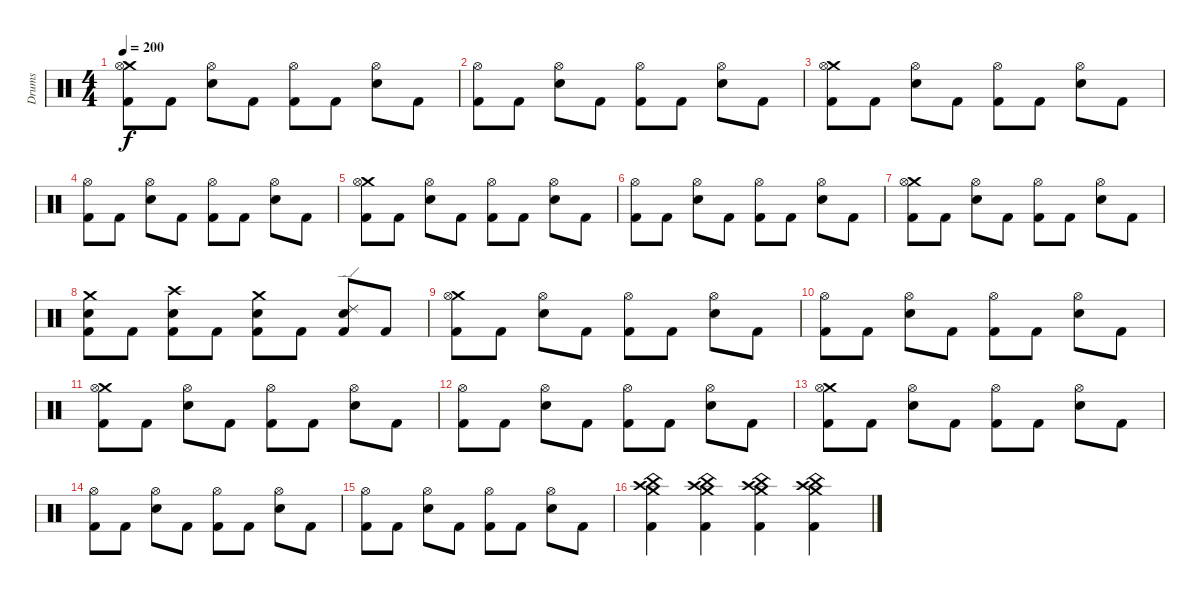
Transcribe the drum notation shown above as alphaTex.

\track ("Drums" "Drums") {instrument percussion}
\staff {score}
\articulation defaults
\ts (4 4)
\tempo 200
\clef neutral
\ks c
("Crash medium (hit)" "Hi-Hat (open)" "Kick (hit) 2").8{dy f} "Kick (hit) 2".8 ("Hi-Hat (open)" "Snare (hit) 2").8 "Kick (hit) 2".8 ("Hi-Hat (open)" "Kick (hit) 2").8 "Kick (hit) 2".8 ("Hi-Hat (open)" "Snare (hit) 2").8 "Kick (hit) 2".8 |
("Hi-Hat (open)" "Kick (hit) 2").8 "Kick (hit) 2".8 ("Hi-Hat (open)" "Snare (hit) 2").8 "Kick (hit) 2".8 ("Hi-Hat (open)" "Kick (hit) 2").8 "Kick (hit) 2".8 ("Hi-Hat (open)" "Snare (hit) 2").8 "Kick (hit) 2".8 |
("Crash medium (hit)" "Hi-Hat (open)" "Kick (hit) 2").8 "Kick (hit) 2".8 ("Hi-Hat (open)" "Snare (hit) 2").8 "Kick (hit) 2".8 ("Hi-Hat (open)" "Kick (hit) 2").8 "Kick (hit) 2".8 ("Hi-Hat (open)" "Snare (hit) 2").8 "Kick (hit) 2".8 |
("Hi-Hat (open)" "Kick (hit) 2").8 "Kick (hit) 2".8 ("Hi-Hat (open)" "Snare (hit) 2").8 "Kick (hit) 2".8 ("Hi-Hat (open)" "Kick (hit) 2").8 "Kick (hit) 2".8 ("Hi-Hat (open)" "Snare (hit) 2").8 "Kick (hit) 2".8 |
("Crash medium (hit)" "Hi-Hat (open)" "Kick (hit) 2").8 "Kick (hit) 2".8 ("Hi-Hat (open)" "Snare (hit) 2").8 "Kick (hit) 2".8 ("Hi-Hat (open)" "Kick (hit) 2").8 "Kick (hit) 2".8 ("Hi-Hat (open)" "Snare (hit) 2").8 "Kick (hit) 2".8 |
("Hi-Hat (open)" "Kick (hit) 2").8 "Kick (hit) 2".8 ("Hi-Hat (open)" "Snare (hit) 2").8 "Kick (hit) 2".8 ("Hi-Hat (open)" "Kick (hit) 2").8 "Kick (hit) 2".8 ("Hi-Hat (open)" "Snare (hit) 2").8 "Kick (hit) 2".8 |
("Crash medium (hit)" "Hi-Hat (open)" "Kick (hit) 2").8 "Kick (hit) 2".8 ("Hi-Hat (open)" "Snare (hit) 2").8 "Kick (hit) 2".8 ("Hi-Hat (open)" "Kick (hit) 2").8 "Kick (hit) 2".8 ("Hi-Hat (open)" "Snare (hit) 2").8 "Kick (hit) 2".8 |
("Crash medium (hit)" "Snare (hit) 2" "Kick (hit) 2").8 "Kick (hit) 2".8 ("Crash high (hit)" "Snare (hit) 2" "Kick (hit) 2").8 "Kick (hit) 2".8 ("Crash medium (hit)" "Snare (hit) 2" "Kick (hit) 2").8 "Kick (hit) 2".8 ("Ride (edge) 2" "Snare (hit) 2" "Kick (hit) 2").8 "Kick (hit) 2".8 |
("Crash medium (hit)" "Hi-Hat (open)" "Kick (hit) 2").8 "Kick (hit) 2".8 ("Hi-Hat (open)" "Snare (hit) 2").8 "Kick (hit) 2".8 ("Hi-Hat (open)" "Kick (hit) 2").8 "Kick (hit) 2".8 ("Hi-Hat (open)" "Snare (hit) 2").8 "Kick (hit) 2".8 |
("Hi-Hat (open)" "Kick (hit) 2").8 "Kick (hit) 2".8 ("Hi-Hat (open)" "Snare (hit) 2").8 "Kick (hit) 2".8 ("Hi-Hat (open)" "Kick (hit) 2").8 "Kick (hit) 2".8 ("Hi-Hat (open)" "Snare (hit) 2").8 "Kick (hit) 2".8 |
("Crash medium (hit)" "Hi-Hat (open)" "Kick (hit) 2").8 "Kick (hit) 2".8 ("Hi-Hat (open)" "Snare (hit) 2").8 "Kick (hit) 2".8 ("Hi-Hat (open)" "Kick (hit) 2").8 "Kick (hit) 2".8 ("Hi-Hat (open)" "Snare (hit) 2").8 "Kick (hit) 2".8 |
("Hi-Hat (open)" "Kick (hit) 2").8 "Kick (hit) 2".8 ("Hi-Hat (open)" "Snare (hit) 2").8 "Kick (hit) 2".8 ("Hi-Hat (open)" "Kick (hit) 2").8 "Kick (hit) 2".8 ("Hi-Hat (open)" "Snare (hit) 2").8 "Kick (hit) 2".8 |
("Crash medium (hit)" "Hi-Hat (open)" "Kick (hit) 2").8 "Kick (hit) 2".8 ("Hi-Hat (open)" "Snare (hit) 2").8 "Kick (hit) 2".8 ("Hi-Hat (open)" "Kick (hit) 2").8 "Kick (hit) 2".8 ("Hi-Hat (open)" "Snare (hit) 2").8 "Kick (hit) 2".8 |
("Hi-Hat (open)" "Kick (hit) 2").8 "Kick (hit) 2".8 ("Hi-Hat (open)" "Electric Snare (hit)").8 "Kick (hit) 2".8 ("Hi-Hat (open)" "Kick (hit) 2").8 "Kick (hit) 2".8 ("Hi-Hat (open)" "Electric Snare (hit)").8 "Kick (hit) 2".8 |
("Hi-Hat (open)" "Kick (hit) 2").8 "Kick (hit) 2".8 ("Hi-Hat (open)" "Electric Snare (hit)").8 "Kick (hit) 2".8 ("Hi-Hat (open)" "Kick (hit) 2").8 "Kick (hit) 2".8 ("Hi-Hat (open)" "Electric Snare (hit)").8 "Kick (hit) 2".8 |
("China (hit)" "Crash medium (hit)" "Crash high (hit)" "Kick (hit) 2").4 ("China (hit)" "Crash medium (hit)" "Crash high (hit)" "Kick (hit) 2").4 ("China (hit)" "Crash medium (hit)" "Crash high (hit)" "Kick (hit) 2").4 ("China (hit)" "Crash medium (hit)" "Crash high (hit)" "Kick (hit) 2").4
